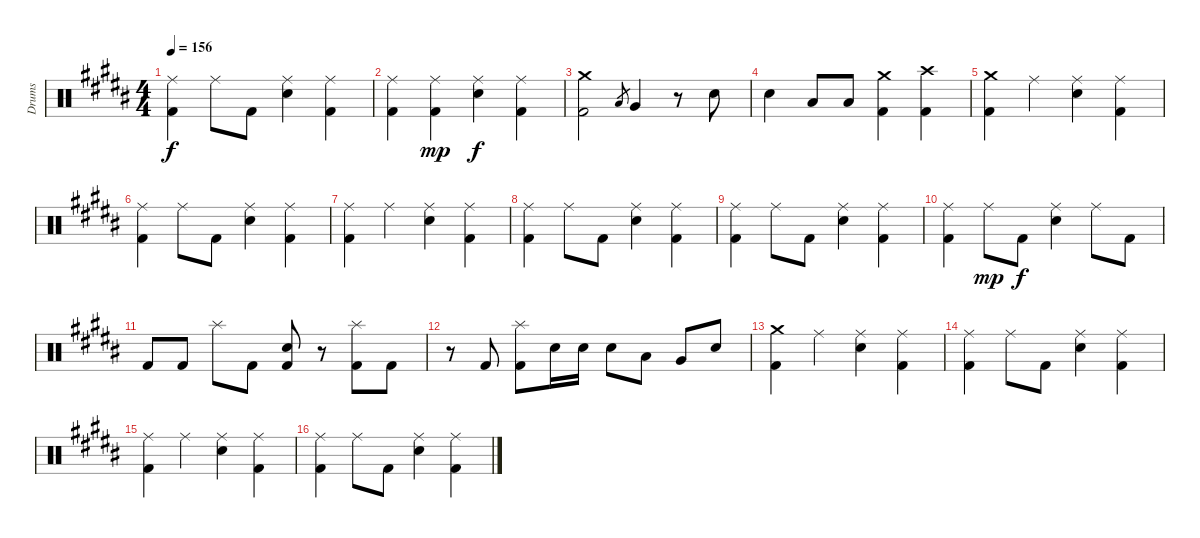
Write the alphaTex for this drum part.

\track ("Drums" "Drums") {instrument percussion}
\staff {score}
\articulation defaults
\ts (4 4)
\tempo 156
\clef neutral
\ks g#minor
("Ride (middle)" "Kick (hit) 2").4{dy f} "Ride (middle)".8 "Kick (hit) 2".8 ("Ride (middle)" "Snare (hit) 2").4 ("Ride (middle)" "Kick (hit) 2").4 |
("Ride (middle)" "Kick (hit) 2").4 ("Ride (middle)" "Kick (hit) 2").4{dy mp} ("Ride (middle)" "Snare (hit) 2").4{dy f} ("Ride (middle)" "Kick (hit) 2").4 |
("Crash medium (hit)" "Kick (hit) 2").2 "Low Floor Tom (hit)".8{gr} "Very Low Tom (hit)".4 r.8 "Snare (hit) 2".8 |
"Snare (hit) 2".4 "Low Floor Tom (hit)".8 "Low Floor Tom (hit)".8 ("Crash medium (hit)" "Kick (hit) 2").4 ("Crash high (hit)" "Kick (hit) 2").4 |
("Crash medium (hit)" "Kick (hit) 2").4 "Ride (middle)".4 ("Ride (middle)" "Snare (hit) 2").4 ("Ride (middle)" "Kick (hit) 2").4 |
("Ride (middle)" "Kick (hit) 2").4 "Ride (middle)".8 "Kick (hit) 2".8 ("Ride (middle)" "Snare (hit) 2").4 ("Ride (middle)" "Kick (hit) 2").4 |
("Ride (middle)" "Kick (hit) 2").4 "Ride (middle)".4 ("Ride (middle)" "Snare (hit) 2").4 ("Ride (middle)" "Kick (hit) 2").4 |
("Ride (middle)" "Kick (hit) 2").4 "Ride (middle)".8 "Kick (hit) 2".8 ("Ride (middle)" "Snare (hit) 2").4 ("Ride (middle)" "Kick (hit) 2").4 |
("Ride (middle)" "Kick (hit) 2").4 "Ride (middle)".8 "Kick (hit) 2".8 ("Ride (middle)" "Snare (hit) 2").4 ("Ride (middle)" "Kick (hit) 2").4 |
("Ride (middle)" "Kick (hit) 2").4 "Ride (middle)".8{dy mp} "Kick (hit) 2".8{dy f} ("Ride (middle)" "Snare (hit) 2").4 "Ride (middle)".8 "Kick (hit) 2".8 |
"Kick (hit) 2".8 "Kick (hit) 2".8 "Splash (hit)".8 "Kick (hit) 2".8 ("Snare (hit) 2" "Kick (hit) 2").8 r.8 ("Splash (hit)" "Kick (hit) 2").8 "Kick (hit) 2".8 |
r.8 "Kick (hit) 2".8 ("Splash (hit)" "Kick (hit) 2").8 "Snare (hit) 2".16 "Snare (hit) 2".16 "Snare (hit) 2".8 "Low Tom (hit)".8 "Very Low Tom (hit)".8 "Snare (hit) 2".8 |
("Crash medium (hit)" "Kick (hit) 2").4 "Ride (middle)".4 ("Ride (middle)" "Snare (hit) 2").4 ("Ride (middle)" "Kick (hit) 2").4 |
("Ride (middle)" "Kick (hit) 2").4 "Ride (middle)".8 "Kick (hit) 2".8 ("Ride (middle)" "Snare (hit) 2").4 ("Ride (middle)" "Kick (hit) 2").4 |
("Ride (middle)" "Kick (hit) 2").4 "Ride (middle)".4 ("Ride (middle)" "Snare (hit) 2").4 ("Ride (middle)" "Kick (hit) 2").4 |
("Ride (middle)" "Kick (hit) 2").4 "Ride (middle)".8 "Kick (hit) 2".8 ("Ride (middle)" "Snare (hit) 2").4 ("Ride (middle)" "Kick (hit) 2").4
